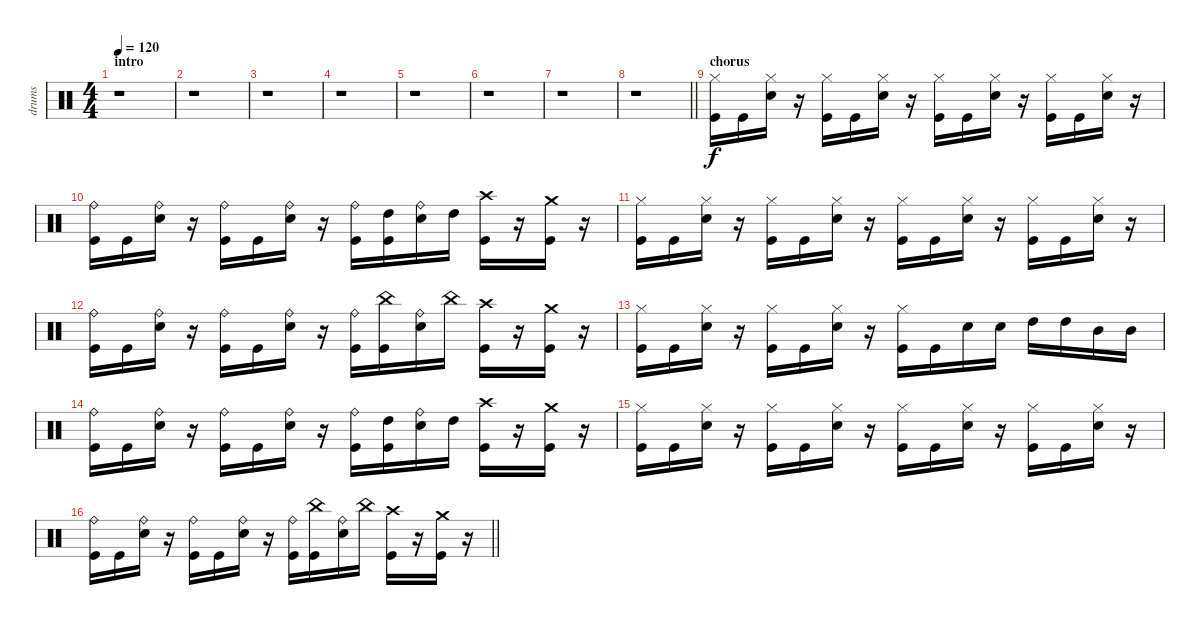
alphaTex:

\track ("drums" "drums") {instrument percussion}
\staff {score}
\articulation defaults
\ts (4 4)
\section ("" "intro")
\tempo 120
\clef neutral
\ks c
r.1{dy f} |
r.1 |
r.1 |
r.1 |
r.1 |
r.1 |
r.1 |
\barLineRight lightlight
r.1 |
\section ("" "chorus")
("Hi-Hat (closed)" "Kick (hit)").16 "Kick (hit)".16 ("Hi-Hat (closed)" "Electric Snare (hit)").16 r.16 ("Hi-Hat (closed)" "Kick (hit)").16 "Kick (hit)".16 ("Hi-Hat (closed)" "Electric Snare (hit)").16 r.16 ("Hi-Hat (closed)" "Kick (hit)").16 "Kick (hit)".16 ("Hi-Hat (closed)" "Electric Snare (hit)").16 r.16 ("Hi-Hat (closed)" "Kick (hit)").16 "Kick (hit)".16 ("Hi-Hat (closed)" "Electric Snare (hit)").16 r.16 |
("Ride (bell)" "Kick (hit)").16 "Kick (hit)".16 ("Ride (bell)" "Electric Snare (hit)").16 r.16 ("Ride (bell)" "Kick (hit)").16 "Kick (hit)".16 ("Ride (bell)" "Electric Snare (hit)").16 r.16 ("Ride (bell)" "Kick (hit)").16 ("High Tom (hit)" "Kick (hit)").16 ("Ride (bell)" "Electric Snare (hit)").16 "High Tom (hit)".16 ("Crash high (hit)" "Kick (hit)").16 r.16 ("Crash medium (hit)" "Kick (hit)").16 r.16 |
("Hi-Hat (closed)" "Kick (hit)").16 "Kick (hit)".16 ("Hi-Hat (closed)" "Electric Snare (hit)").16 r.16 ("Hi-Hat (closed)" "Kick (hit)").16 "Kick (hit)".16 ("Hi-Hat (closed)" "Electric Snare (hit)").16 r.16 ("Hi-Hat (closed)" "Kick (hit)").16 "Kick (hit)".16 ("Hi-Hat (closed)" "Electric Snare (hit)").16 r.16 ("Hi-Hat (closed)" "Kick (hit)").16 "Kick (hit)".16 ("Hi-Hat (closed)" "Electric Snare (hit)").16 r.16 |
("Ride (bell)" "Kick (hit)").16 "Kick (hit)".16 ("Ride (bell)" "Electric Snare (hit)").16 r.16 ("Ride (bell)" "Kick (hit)").16 "Kick (hit)".16 ("Ride (bell)" "Electric Snare (hit)").16 r.16 ("Ride (bell)" "Kick (hit)").16 ("China (hit)" "Kick (hit)").16 ("Ride (bell)" "Electric Snare (hit)").16 "China (hit)".16 ("Crash high (hit)" "Kick (hit)").16 r.16 ("Crash medium (hit)" "Kick (hit)").16 r.16 |
("Hi-Hat (closed)" "Kick (hit)").16 "Kick (hit)".16 ("Hi-Hat (closed)" "Electric Snare (hit)").16 r.16 ("Hi-Hat (closed)" "Kick (hit)").16 "Kick (hit)".16 ("Hi-Hat (closed)" "Electric Snare (hit)").16 r.16 ("Hi-Hat (closed)" "Kick (hit)").16 "Kick (hit)".16 "Electric Snare (hit)".16 "Electric Snare (hit)".16 "High Tom (hit)".16 "High Tom (hit)".16 "Mid Tom (hit)".16 "Mid Tom (hit)".16 |
("Ride (bell)" "Kick (hit)").16 "Kick (hit)".16 ("Ride (bell)" "Electric Snare (hit)").16 r.16 ("Ride (bell)" "Kick (hit)").16 "Kick (hit)".16 ("Ride (bell)" "Electric Snare (hit)").16 r.16 ("Ride (bell)" "Kick (hit)").16 ("High Tom (hit)" "Kick (hit)").16 ("Ride (bell)" "Electric Snare (hit)").16 "High Tom (hit)".16 ("Crash high (hit)" "Kick (hit)").16 r.16 ("Crash medium (hit)" "Kick (hit)").16 r.16 |
("Hi-Hat (closed)" "Kick (hit)").16 "Kick (hit)".16 ("Hi-Hat (closed)" "Electric Snare (hit)").16 r.16 ("Hi-Hat (closed)" "Kick (hit)").16 "Kick (hit)".16 ("Hi-Hat (closed)" "Electric Snare (hit)").16 r.16 ("Hi-Hat (closed)" "Kick (hit)").16 "Kick (hit)".16 ("Hi-Hat (closed)" "Electric Snare (hit)").16 r.16 ("Hi-Hat (closed)" "Kick (hit)").16 "Kick (hit)".16 ("Hi-Hat (closed)" "Electric Snare (hit)").16 r.16 |
\barLineRight lightlight
("Ride (bell)" "Kick (hit)").16 "Kick (hit)".16 ("Ride (bell)" "Electric Snare (hit)").16 r.16 ("Ride (bell)" "Kick (hit)").16 "Kick (hit)".16 ("Ride (bell)" "Electric Snare (hit)").16 r.16 ("Ride (bell)" "Kick (hit)").16 ("China (hit)" "Kick (hit)").16 ("Ride (bell)" "Electric Snare (hit)").16 "China (hit)".16 ("Crash high (hit)" "Kick (hit)").16 r.16 ("Crash medium (hit)" "Kick (hit)").16 r.16
